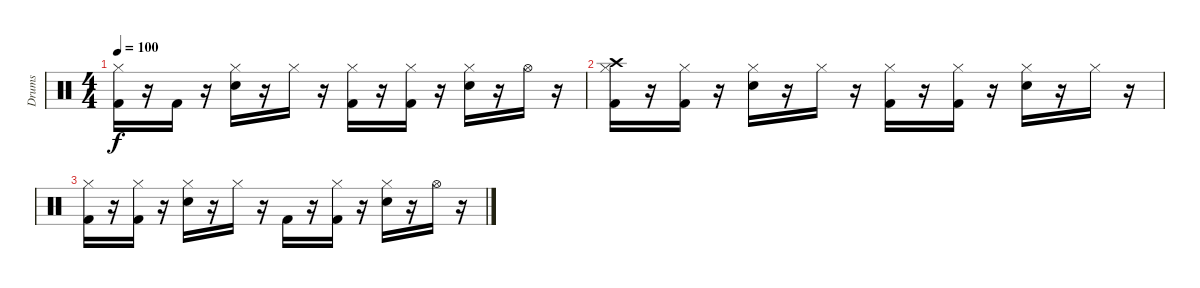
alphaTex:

\track ("Drums" "Drums") {instrument percussion}
\staff {score}
\articulation defaults
\ts (4 4)
\tempo 100
\clef neutral
\ks c
("Kick (hit) 2" "Hi-Hat (closed)").16{dy f} r.16 "Kick (hit) 2".16 r.16 ("Snare (hit) 2" "Hi-Hat (closed)").16 r.16 "Hi-Hat (closed)".16 r.16 ("Kick (hit) 2" "Hi-Hat (closed)").16 r.16 ("Kick (hit) 2" "Hi-Hat (closed)").16 r.16 ("Snare (hit) 2" "Hi-Hat (closed)").16 r.16 "Hi-Hat (open)".16 r.16 |
("Kick (hit) 2" "Hi-Hat (closed)" "Crash high (hit)").16 r.16 ("Kick (hit) 2" "Hi-Hat (closed)").16 r.16 ("Snare (hit) 2" "Hi-Hat (closed)").16 r.16 "Hi-Hat (closed)".16 r.16 ("Kick (hit) 2" "Hi-Hat (closed)").16 r.16 ("Kick (hit) 2" "Hi-Hat (closed)").16 r.16 ("Snare (hit) 2" "Hi-Hat (closed)").16 r.16 "Hi-Hat (closed)".16 r.16 |
("Kick (hit) 2" "Hi-Hat (closed)").16 r.16 ("Kick (hit) 2" "Hi-Hat (closed)").16 r.16 ("Snare (hit) 2" "Hi-Hat (closed)").16 r.16 "Hi-Hat (closed)".16 r.16 "Kick (hit) 2".16 r.16 ("Kick (hit) 2" "Hi-Hat (closed)").16 r.16 ("Snare (hit) 2" "Hi-Hat (closed)").16 r.16 "Hi-Hat (open)".16 r.16
